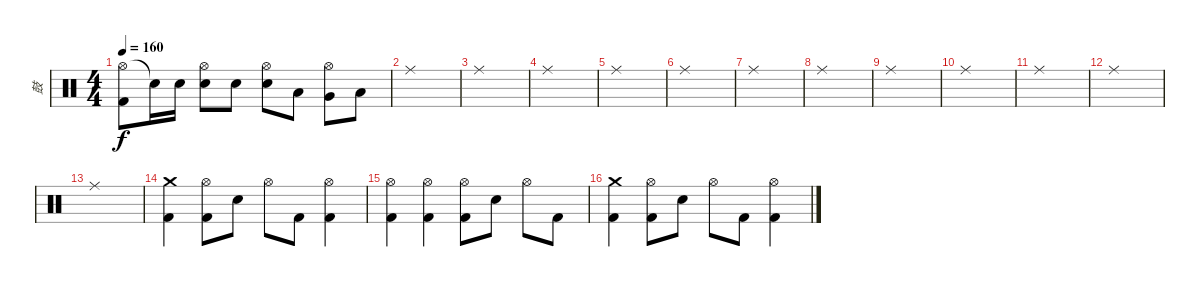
\track ("鼓" "鼓") {instrument percussion}
\staff {score}
\articulation defaults
\ts (4 4)
\tempo 160
\clef neutral
\ks c
("Hi-Hat (open)" "Kick (hit) 2").8{dy f} "Snare (hit)"{t}.16 "Electric Snare (hit)".16 ("Hi-Hat (open)" "Electric Snare (hit)").8 "Electric Snare (hit)".8 ("Hi-Hat (open)" "Electric Snare (hit)").8 "Low Tom (hit)".8 ("Hi-Hat (open)" "Very Low Tom (hit)").8 "Low Floor Tom (hit)".8 |
"Ride (middle)".1 |
"Ride (middle)".1 |
"Ride (middle)".1 |
"Ride (middle)".1 |
"Ride (middle)".1 |
"Ride (middle)".1 |
"Ride (middle)".1 |
"Ride (middle)".1 |
"Ride (middle)".1 |
"Ride (middle)".1 |
"Ride (middle)".1 |
"Ride (middle)".1 |
("Crash medium (hit)" "Kick (hit) 2").4 ("Hi-Hat (open)" "Kick (hit) 2").8 "Electric Snare (hit)".8 "Hi-Hat (open)".8 "Kick (hit) 2".8 ("Hi-Hat (open)" "Kick (hit) 2").4 |
("Hi-Hat (open)" "Kick (hit) 2").4 ("Hi-Hat (open)" "Kick (hit) 2").4 ("Hi-Hat (open)" "Kick (hit) 2").8 "Electric Snare (hit)".8 "Hi-Hat (open)".8 "Kick (hit) 2".8 |
("Crash medium (hit)" "Kick (hit) 2").4 ("Hi-Hat (open)" "Kick (hit) 2").8 "Electric Snare (hit)".8 "Hi-Hat (open)".8 "Kick (hit) 2".8 ("Hi-Hat (open)" "Kick (hit) 2").4
